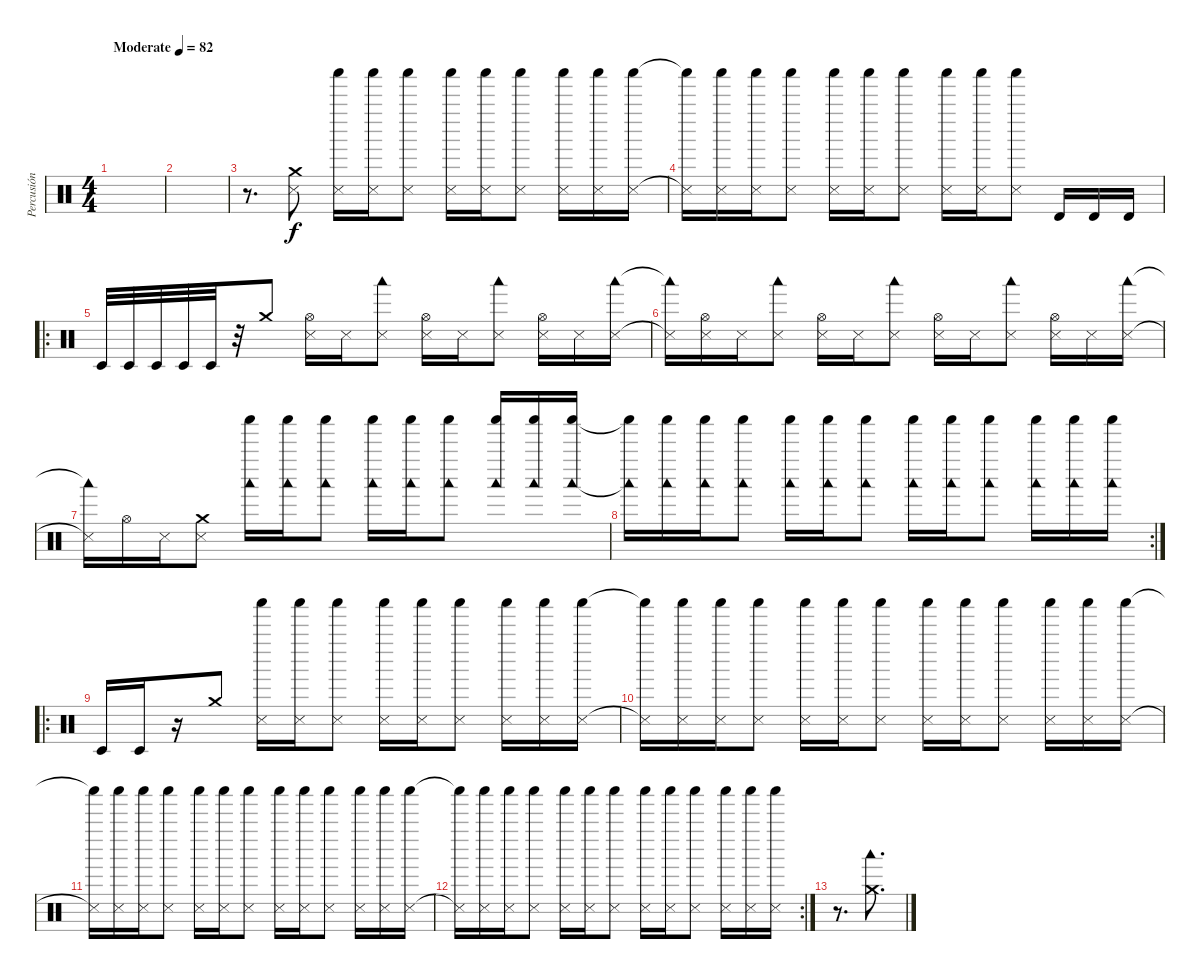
\track ("Percusión" "Percusión") {instrument percussion}
\staff {score}
\articulation defaults
\ts (4 4)
\tempo (82 "Moderate")
\clef neutral
\ks c
|
|
r.8{d} ("Crash medium (hit)" "Snare (side stick) 3").8 ("Shaker (hit)" "Snare (side stick) 3").16 ("Shaker (hit)" "Snare (side stick) 3").16 ("Shaker (hit)" "Snare (side stick) 3").8 ("Shaker (hit)" "Snare (side stick) 3").16 ("Shaker (hit)" "Snare (side stick) 3").16 ("Shaker (hit)" "Snare (side stick) 3").8 ("Shaker (hit)" "Snare (side stick) 3").16 ("Shaker (hit)" "Snare (side stick) 3").16 ("Shaker (hit)" "Snare (side stick) 3").16 |
("Shaker (hit)"{t} "Snare (side stick) 3"{t}).16 ("Shaker (hit)" "Snare (side stick) 3").16 ("Shaker (hit)" "Snare (side stick) 3").16 ("Shaker (hit)" "Snare (side stick) 3").8 ("Shaker (hit)" "Snare (side stick) 3").16 ("Shaker (hit)" "Snare (side stick) 3").16 ("Shaker (hit)" "Snare (side stick) 3").8 ("Shaker (hit)" "Snare (side stick) 3").16 ("Shaker (hit)" "Snare (side stick) 3").16 ("Shaker (hit)" "Snare (side stick) 3").8 "Timbale high (hit)".16 "Timbale high (hit)".16 "Timbale high (hit)".16 |
\ro "Timbale low (hit)".32 "Timbale low (hit)".32 "Timbale low (hit)".32 "Timbale low (hit)".32 "Timbale low (hit)".32
r.32 "Crash medium (hit)".8 ("Hi-Hat (open)" "Snare (side stick) 3").16 "Snare (side stick) 3".16 ("Snare (side stick) 3" "Woodblock low (hit)").8 ("Hi-Hat (open)" "Snare (side stick) 3").16 "Snare (side stick) 3".16 ("Woodblock low (hit)" "Snare (side stick) 3").8 ("Hi-Hat (open)" "Snare (side stick) 3").16 "Snare (side stick) 3".16 ("Woodblock low (hit)" "Snare (side stick) 3").16 |
("Woodblock low (hit)"{t} "Snare (side stick) 3"{t}).16 ("Hi-Hat (open)" "Snare (side stick) 3").16 "Snare (side stick) 3".16 ("Woodblock low (hit)" "Snare (side stick) 3").8 ("Hi-Hat (open)" "Snare (side stick) 3").16 "Snare (side stick) 3".16 ("Woodblock low (hit)" "Snare (side stick) 3").8 ("Hi-Hat (open)" "Snare (side stick) 3").16 "Snare (side stick) 3".16 ("Woodblock low (hit)" "Snare (side stick) 3").8 ("Hi-Hat (open)" "Snare (side stick) 3").16 "Snare (side stick) 3".16 ("Woodblock low (hit)" "Snare (side stick) 3").16 |
("Woodblock low (hit)"{t} "Snare (side stick) 3"{t}).16 "Hi-Hat (open)".16 "Snare (side stick) 3".16 ("Crash medium (hit)" "Snare (side stick) 3").8 ("Shaker (hit)" "Woodblock low (hit)").16 ("Shaker (hit)" "Woodblock low (hit)").16 ("Shaker (hit)" "Woodblock low (hit)").8 ("Shaker (hit)" "Woodblock low (hit)").16 ("Shaker (hit)" "Woodblock low (hit)").16 ("Shaker (hit)" "Woodblock low (hit)").8 ("Shaker (hit)" "Woodblock low (hit)").16{beam Up} ("Shaker (hit)" "Woodblock low (hit)").16{beam Up} ("Shaker (hit)" "Woodblock low (hit)").16{beam Up} |
\rc 2
("Shaker (hit)"{t} "Woodblock low (hit)"{t}).16 ("Shaker (hit)" "Woodblock low (hit)").16 ("Shaker (hit)" "Woodblock low (hit)").16 ("Shaker (hit)" "Woodblock low (hit)").8 ("Shaker (hit)" "Woodblock low (hit)").16 ("Shaker (hit)" "Woodblock low (hit)").16 ("Shaker (hit)" "Woodblock low (hit)").8 ("Shaker (hit)" "Woodblock low (hit)").16 ("Shaker (hit)" "Woodblock low (hit)").16 ("Shaker (hit)" "Woodblock low (hit)").8 ("Shaker (hit)" "Woodblock low (hit)").16 ("Shaker (hit)" "Woodblock low (hit)").16 ("Shaker (hit)" "Woodblock low (hit)").16 |
\ro "Timbale low (hit)".16 "Timbale low (hit)".16
r.16 "Crash medium (hit)".8 ("Shaker (hit)" "Snare (side stick) 3").16 ("Shaker (hit)" "Snare (side stick) 3").16 ("Shaker (hit)" "Snare (side stick) 3").8 ("Shaker (hit)" "Snare (side stick) 3").16 ("Shaker (hit)" "Snare (side stick) 3").16 ("Shaker (hit)" "Snare (side stick) 3").8 ("Shaker (hit)" "Snare (side stick) 3").16 ("Shaker (hit)" "Snare (side stick) 3").16 ("Shaker (hit)" "Snare (side stick) 3").16 |
("Shaker (hit)"{t} "Snare (side stick) 3"{t}).16 ("Shaker (hit)" "Snare (side stick) 3").16 ("Shaker (hit)" "Snare (side stick) 3").16 ("Shaker (hit)" "Snare (side stick) 3").8 ("Shaker (hit)" "Snare (side stick) 3").16 ("Shaker (hit)" "Snare (side stick) 3").16 ("Shaker (hit)" "Snare (side stick) 3").8 ("Shaker (hit)" "Snare (side stick) 3").16 ("Shaker (hit)" "Snare (side stick) 3").16 ("Shaker (hit)" "Snare (side stick) 3").8 ("Shaker (hit)" "Snare (side stick) 3").16 ("Shaker (hit)" "Snare (side stick) 3").16 ("Shaker (hit)" "Snare (side stick) 3").16 |
("Shaker (hit)"{t} "Snare (side stick) 3"{t}).16 ("Shaker (hit)" "Snare (side stick) 3").16 ("Shaker (hit)" "Snare (side stick) 3").16 ("Shaker (hit)" "Snare (side stick) 3").8 ("Shaker (hit)" "Snare (side stick) 3").16 ("Shaker (hit)" "Snare (side stick) 3").16 ("Shaker (hit)" "Snare (side stick) 3").8 ("Shaker (hit)" "Snare (side stick) 3").16 ("Shaker (hit)" "Snare (side stick) 3").16 ("Shaker (hit)" "Snare (side stick) 3").8 ("Shaker (hit)" "Snare (side stick) 3").16 ("Shaker (hit)" "Snare (side stick) 3").16 ("Shaker (hit)" "Snare (side stick) 3").16 |
\rc 2
("Shaker (hit)"{t} "Snare (side stick) 3"{t}).16 ("Shaker (hit)" "Snare (side stick) 3").16 ("Shaker (hit)" "Snare (side stick) 3").16 ("Shaker (hit)" "Snare (side stick) 3").8 ("Shaker (hit)" "Snare (side stick) 3").16 ("Shaker (hit)" "Snare (side stick) 3").16 ("Shaker (hit)" "Snare (side stick) 3").8 ("Shaker (hit)" "Snare (side stick) 3").16 ("Shaker (hit)" "Snare (side stick) 3").16 ("Shaker (hit)" "Snare (side stick) 3").8 ("Shaker (hit)" "Snare (side stick) 3").16 ("Shaker (hit)" "Snare (side stick) 3").16 ("Shaker (hit)" "Snare (side stick) 3").16 |
r.8{d} ("Crash medium (hit)" "Woodblock low (hit)").8{d}
